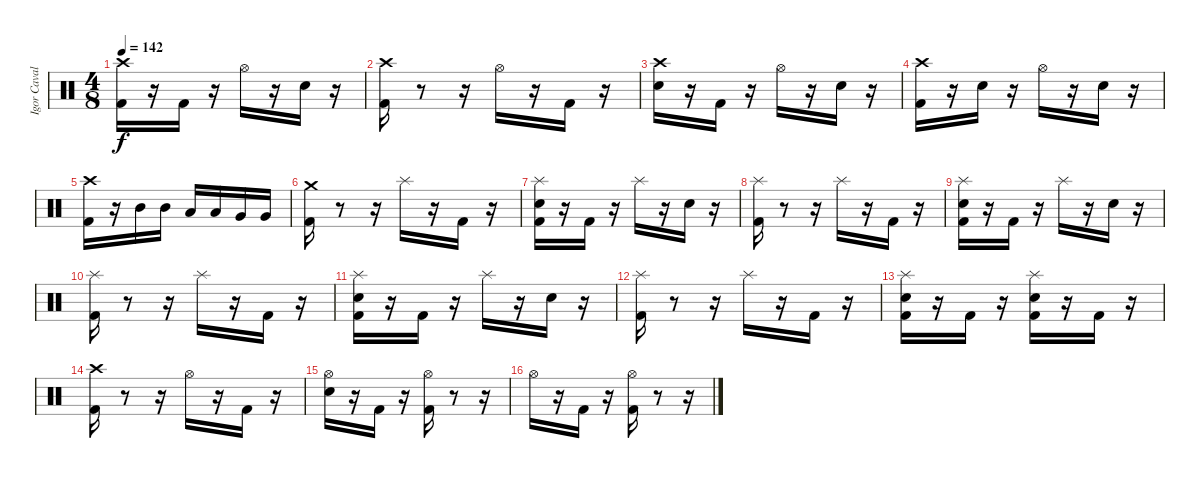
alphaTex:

\track ("Igor Cavalera" "Igor Caval") {instrument percussion}
\staff {score}
\articulation defaults
\ts (4 8)
\tempo 142
\clef neutral
\ks c
("Crash high (hit)" "Kick (hit) 2").16{dy f} r.16 "Kick (hit) 2".16 r.16 "Hi-Hat (open)".16 r.16 "Electric Snare (hit)".16 r.16 |
("Crash high (hit)" "Kick (hit) 2").16 r.8 r.16 "Hi-Hat (open)".16 r.16 "Kick (hit) 2".16 r.16 |
("Crash high (hit)" "Electric Snare (hit)").16 r.16 "Kick (hit) 2".16 r.16 "Hi-Hat (open)".16 r.16 "Electric Snare (hit)".16 r.16 |
("Kick (hit) 2" "Crash high (hit)").16 r.16 "Electric Snare (hit)".16 r.16 "Hi-Hat (open)".16 r.16 "Electric Snare (hit)".16 r.16 |
("Crash high (hit)" "Kick (hit) 2").16 r.16 "Mid Tom (hit)".16 "Mid Tom (hit)".16 "Low Tom (hit)".16 "Low Tom (hit)".16 "Very Low Tom (hit)".16 "Very Low Tom (hit)".16 |
("Kick (hit) 2" "Crash medium (hit)").16 r.8 r.16 "Splash (hit)".16 r.16 "Kick (hit) 2".16 r.16 |
("Electric Snare (hit)" "Kick (hit) 2" "Splash (hit)").16 r.16 "Kick (hit) 2".16 r.16 "Splash (hit)".16 r.16 "Electric Snare (hit)".16 r.16 |
("Kick (hit) 2" "Splash (hit)").16 r.8 r.16 "Splash (hit)".16 r.16 "Kick (hit) 2".16 r.16 |
("Electric Snare (hit)" "Kick (hit) 2" "Splash (hit)").16 r.16 "Kick (hit) 2".16 r.16 "Splash (hit)".16 r.16 "Electric Snare (hit)".16 r.16 |
("Kick (hit) 2" "Splash (hit)").16 r.8 r.16 "Splash (hit)".16 r.16 "Kick (hit) 2".16 r.16 |
("Electric Snare (hit)" "Kick (hit) 2" "Splash (hit)").16 r.16 "Kick (hit) 2".16 r.16 "Splash (hit)".16 r.16 "Electric Snare (hit)".16 r.16 |
("Kick (hit) 2" "Splash (hit)").16 r.8 r.16 "Splash (hit)".16 r.16 "Kick (hit) 2".16 r.16 |
("Electric Snare (hit)" "Kick (hit) 2" "Splash (hit)").16 r.16 "Kick (hit) 2".16 r.16 ("Splash (hit)" "Electric Snare (hit)" "Kick (hit) 2").16 r.16 "Kick (hit) 2".16 r.16 |
("Crash high (hit)" "Kick (hit) 2").16 r.8 r.16 "Hi-Hat (open)".16 r.16 "Kick (hit) 2".16 r.16 |
("Electric Snare (hit)" "Hi-Hat (open)").16 r.16 "Kick (hit) 2".16 r.16 ("Hi-Hat (open)" "Kick (hit) 2").16 r.8 r.16 |
"Hi-Hat (open)".16 r.16 "Kick (hit) 2".16 r.16 ("Hi-Hat (open)" "Kick (hit) 2").16 r.8 r.16
